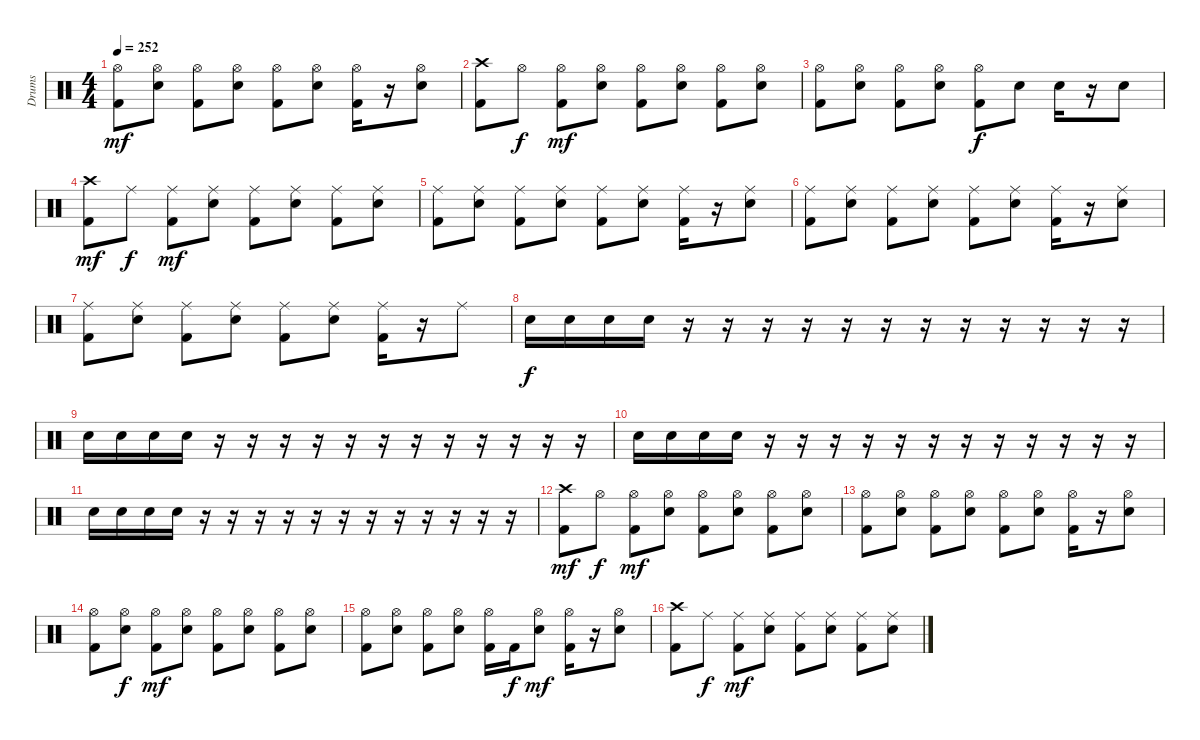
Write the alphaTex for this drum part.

\track ("Drums" "Drums") {instrument percussion}
\staff {score}
\articulation defaults
\ts (4 4)
\tempo 252
\clef neutral
\ks c
("Hi-Hat (open)" "Kick (hit) 2").8{dy mf} ("Hi-Hat (open)" "Snare (hit) 2").8 ("Hi-Hat (open)" "Kick (hit) 2").8 ("Hi-Hat (open)" "Snare (hit) 2").8 ("Hi-Hat (open)" "Kick (hit) 2").8 ("Hi-Hat (open)" "Snare (hit) 2").8 ("Hi-Hat (open)" "Kick (hit) 2").16 r.16 ("Hi-Hat (open)" "Snare (hit) 2").8 |
("Crash high (hit)" "Kick (hit) 2").8 "Hi-Hat (open)".8{dy f} ("Hi-Hat (open)" "Kick (hit) 2").8{dy mf} ("Hi-Hat (open)" "Snare (hit) 2").8 ("Hi-Hat (open)" "Kick (hit) 2").8 ("Hi-Hat (open)" "Snare (hit) 2").8 ("Hi-Hat (open)" "Kick (hit) 2").8 ("Hi-Hat (open)" "Snare (hit) 2").8 |
("Hi-Hat (open)" "Kick (hit) 2").8 ("Hi-Hat (open)" "Snare (hit) 2").8 ("Hi-Hat (open)" "Kick (hit) 2").8 ("Hi-Hat (open)" "Snare (hit) 2").8 ("Hi-Hat (open)" "Kick (hit) 2").8{dy f} "Snare (hit) 2".8 "Snare (hit) 2".16 r.16 "Snare (hit) 2".8 |
("Crash high (hit)" "Kick (hit) 2").8{dy mf} "Ride (middle)".8{dy f} ("Ride (middle)" "Kick (hit) 2").8{dy mf} ("Ride (middle)" "Snare (hit) 2").8 ("Ride (middle)" "Kick (hit) 2").8 ("Ride (middle)" "Snare (hit) 2").8 ("Ride (middle)" "Kick (hit) 2").8 ("Ride (middle)" "Snare (hit) 2").8 |
("Ride (middle)" "Kick (hit) 2").8 ("Ride (middle)" "Snare (hit) 2").8 ("Ride (middle)" "Kick (hit) 2").8 ("Ride (middle)" "Snare (hit) 2").8 ("Ride (middle)" "Kick (hit) 2").8 ("Ride (middle)" "Snare (hit) 2").8 ("Ride (middle)" "Kick (hit) 2").16 r.16 ("Ride (middle)" "Snare (hit) 2").8 |
("Ride (middle)" "Kick (hit) 2").8 ("Ride (middle)" "Snare (hit) 2").8 ("Ride (middle)" "Kick (hit) 2").8 ("Ride (middle)" "Snare (hit) 2").8 ("Ride (middle)" "Kick (hit) 2").8 ("Ride (middle)" "Snare (hit) 2").8 ("Ride (middle)" "Kick (hit) 2").16 r.16 ("Ride (middle)" "Snare (hit) 2").8 |
("Ride (middle)" "Kick (hit) 2").8 ("Ride (middle)" "Snare (hit) 2").8 ("Ride (middle)" "Kick (hit) 2").8 ("Ride (middle)" "Snare (hit) 2").8 ("Ride (middle)" "Kick (hit) 2").8 ("Ride (middle)" "Snare (hit) 2").8 ("Ride (middle)" "Kick (hit) 2").16 r.16 "Ride (middle)".8 |
"Snare (hit) 2".16{dy f} "Snare (hit) 2".16 "Snare (hit) 2".16 "Snare (hit) 2".16 r.16 r.16 r.16 r.16 r.16 r.16 r.16 r.16 r.16 r.16 r.16 r.16 |
"Snare (hit) 2".16 "Snare (hit) 2".16 "Snare (hit) 2".16 "Snare (hit) 2".16 r.16 r.16 r.16 r.16 r.16 r.16 r.16 r.16 r.16 r.16 r.16 r.16 |
"Snare (hit) 2".16 "Snare (hit) 2".16 "Snare (hit) 2".16 "Snare (hit) 2".16 r.16 r.16 r.16 r.16 r.16 r.16 r.16 r.16 r.16 r.16 r.16 r.16 |
"Snare (hit) 2".16 "Snare (hit) 2".16 "Snare (hit) 2".16 "Snare (hit) 2".16 r.16 r.16 r.16 r.16 r.16 r.16 r.16 r.16 r.16 r.16 r.16 r.16 |
("Crash high (hit)" "Kick (hit) 2").8{dy mf} "Hi-Hat (open)".8{dy f} ("Hi-Hat (open)" "Kick (hit) 2").8{dy mf} ("Hi-Hat (open)" "Snare (hit) 2").8 ("Hi-Hat (open)" "Kick (hit) 2").8 ("Hi-Hat (open)" "Snare (hit) 2").8 ("Hi-Hat (open)" "Kick (hit) 2").8 ("Hi-Hat (open)" "Snare (hit) 2").8 |
("Hi-Hat (open)" "Kick (hit) 2").8 ("Hi-Hat (open)" "Snare (hit) 2").8 ("Hi-Hat (open)" "Kick (hit) 2").8 ("Hi-Hat (open)" "Snare (hit) 2").8 ("Hi-Hat (open)" "Kick (hit) 2").8 ("Hi-Hat (open)" "Snare (hit) 2").8 ("Hi-Hat (open)" "Kick (hit) 2").16 r.16 ("Hi-Hat (open)" "Snare (hit) 2").8 |
("Hi-Hat (open)" "Kick (hit) 2").8 ("Hi-Hat (open)" "Snare (hit) 2").8{dy f} ("Hi-Hat (open)" "Kick (hit) 2").8{dy mf} ("Hi-Hat (open)" "Snare (hit) 2").8 ("Hi-Hat (open)" "Kick (hit) 2").8 ("Hi-Hat (open)" "Snare (hit) 2").8 ("Hi-Hat (open)" "Kick (hit) 2").8 ("Hi-Hat (open)" "Snare (hit) 2").8 |
("Hi-Hat (open)" "Kick (hit) 2").8 ("Hi-Hat (open)" "Snare (hit) 2").8 ("Hi-Hat (open)" "Kick (hit) 2").8 ("Hi-Hat (open)" "Snare (hit) 2").8 ("Hi-Hat (open)" "Kick (hit) 2").16 "Kick (hit) 2".16{dy f} ("Hi-Hat (open)" "Snare (hit) 2").8{dy mf} ("Hi-Hat (open)" "Kick (hit) 2").16 r.16 ("Hi-Hat (open)" "Snare (hit) 2").8 |
("Crash high (hit)" "Kick (hit) 2").8 "Ride (middle)".8{dy f} ("Ride (middle)" "Kick (hit) 2").8{dy mf} ("Ride (middle)" "Snare (hit) 2").8 ("Ride (middle)" "Kick (hit) 2").8 ("Ride (middle)" "Snare (hit) 2").8 ("Ride (middle)" "Kick (hit) 2").8 ("Ride (middle)" "Snare (hit) 2").8
